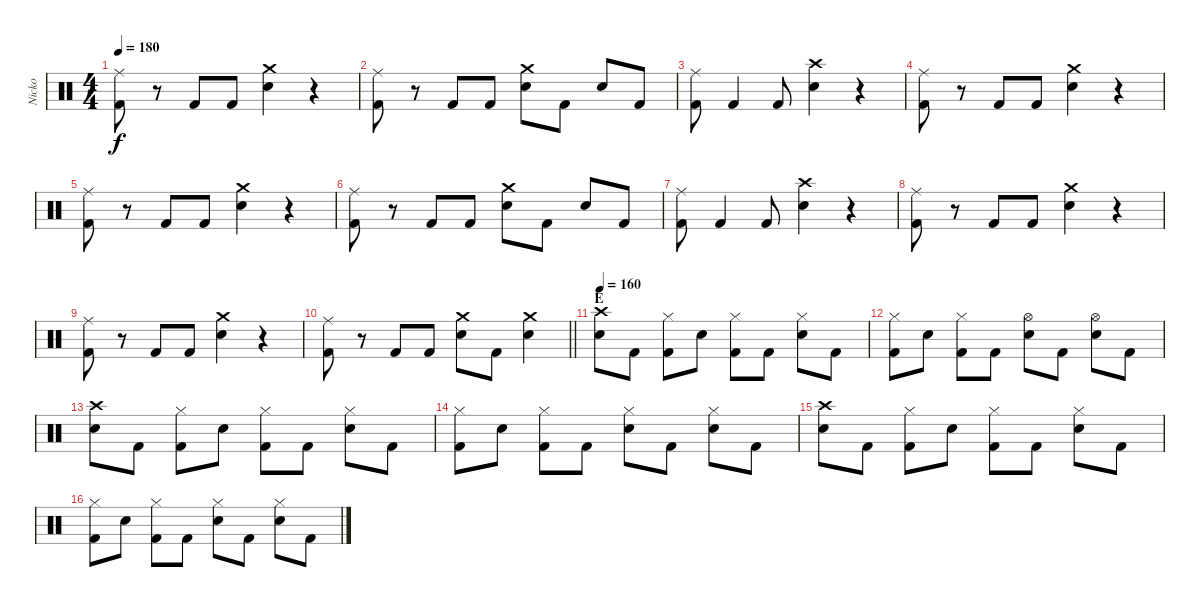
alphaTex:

\track ("Nicko" "Nicko") {instrument percussion}
\staff {score}
\articulation defaults
\ts (4 4)
\tempo 180
\clef neutral
\ks c
("Ride (middle)" "Kick (hit) 2").8{dy f} r.8 "Kick (hit) 2".8 "Kick (hit) 2".8 ("Crash medium (hit)" "Snare (hit) 2").4 r.4 |
("Ride (middle)" "Kick (hit) 2").8 r.8 "Kick (hit) 2".8 "Kick (hit) 2".8 ("Crash medium (hit)" "Snare (hit) 2").8 "Kick (hit) 2".8 "Snare (hit) 2".8 "Kick (hit) 2".8 |
("Ride (middle)" "Kick (hit) 2").8 "Kick (hit) 2".4 "Kick (hit) 2".8 ("Crash high (hit)" "Snare (hit) 2").4 r.4 |
("Ride (middle)" "Kick (hit) 2").8 r.8 "Kick (hit) 2".8 "Kick (hit) 2".8 ("Crash medium (hit)" "Snare (hit) 2").4 r.4 |
("Ride (middle)" "Kick (hit) 2").8 r.8 "Kick (hit) 2".8 "Kick (hit) 2".8 ("Crash medium (hit)" "Snare (hit) 2").4 r.4 |
("Ride (middle)" "Kick (hit) 2").8 r.8 "Kick (hit) 2".8 "Kick (hit) 2".8 ("Crash medium (hit)" "Snare (hit) 2").8 "Kick (hit) 2".8 "Snare (hit) 2".8 "Kick (hit) 2".8 |
("Ride (middle)" "Kick (hit) 2").8 "Kick (hit) 2".4 "Kick (hit) 2".8 ("Crash high (hit)" "Snare (hit) 2").4 r.4 |
("Ride (middle)" "Kick (hit) 2").8 r.8 "Kick (hit) 2".8 "Kick (hit) 2".8 ("Crash medium (hit)" "Snare (hit) 2").4 r.4 |
("Ride (middle)" "Kick (hit) 2").8 r.8 "Kick (hit) 2".8 "Kick (hit) 2".8 ("Crash medium (hit)" "Snare (hit) 2").4 r.4 |
\barLineRight lightlight
("Ride (middle)" "Kick (hit) 2").8 r.8 "Kick (hit) 2".8 "Kick (hit) 2".8 ("Crash medium (hit)" "Snare (hit) 2").8 "Kick (hit) 2".8 ("Crash medium (hit)" "Snare (hit) 2").4 |
\section ("" "E")
\tempo 160
("Crash high (hit)" "Snare (hit) 2").8 "Kick (hit) 2".8 ("Hi-Hat (closed)" "Kick (hit) 2").8 "Snare (hit) 2".8 ("Hi-Hat (closed)" "Kick (hit) 2").8 "Kick (hit) 2".8 ("Hi-Hat (closed)" "Snare (hit) 2").8 "Kick (hit) 2".8 |
("Hi-Hat (closed)" "Kick (hit) 2").8 "Snare (hit) 2".8 ("Hi-Hat (closed)" "Kick (hit) 2").8 "Kick (hit) 2".8 ("Hi-Hat (open)" "Snare (hit) 2").8 "Kick (hit) 2".8 ("Hi-Hat (open)" "Snare (hit) 2").8 "Kick (hit) 2".8 |
("Crash high (hit)" "Snare (hit) 2").8 "Kick (hit) 2".8 ("Hi-Hat (closed)" "Kick (hit) 2").8 "Snare (hit) 2".8 ("Hi-Hat (closed)" "Kick (hit) 2").8 "Kick (hit) 2".8 ("Hi-Hat (closed)" "Snare (hit) 2").8 "Kick (hit) 2".8 |
("Hi-Hat (closed)" "Kick (hit) 2").8 "Snare (hit) 2".8 ("Hi-Hat (closed)" "Kick (hit) 2").8 "Kick (hit) 2".8 ("Hi-Hat (closed)" "Snare (hit) 2").8 "Kick (hit) 2".8 ("Hi-Hat (closed)" "Snare (hit) 2").8 "Kick (hit) 2".8 |
("Crash high (hit)" "Snare (hit) 2").8 "Kick (hit) 2".8 ("Hi-Hat (closed)" "Kick (hit) 2").8 "Snare (hit) 2".8 ("Hi-Hat (closed)" "Kick (hit) 2").8 "Kick (hit) 2".8 ("Hi-Hat (closed)" "Snare (hit) 2").8 "Kick (hit) 2".8 |
("Hi-Hat (closed)" "Kick (hit) 2").8 "Snare (hit) 2".8 ("Hi-Hat (closed)" "Kick (hit) 2").8 "Kick (hit) 2".8 ("Hi-Hat (closed)" "Snare (hit) 2").8 "Kick (hit) 2".8 ("Hi-Hat (closed)" "Snare (hit) 2").8 "Kick (hit) 2".8
